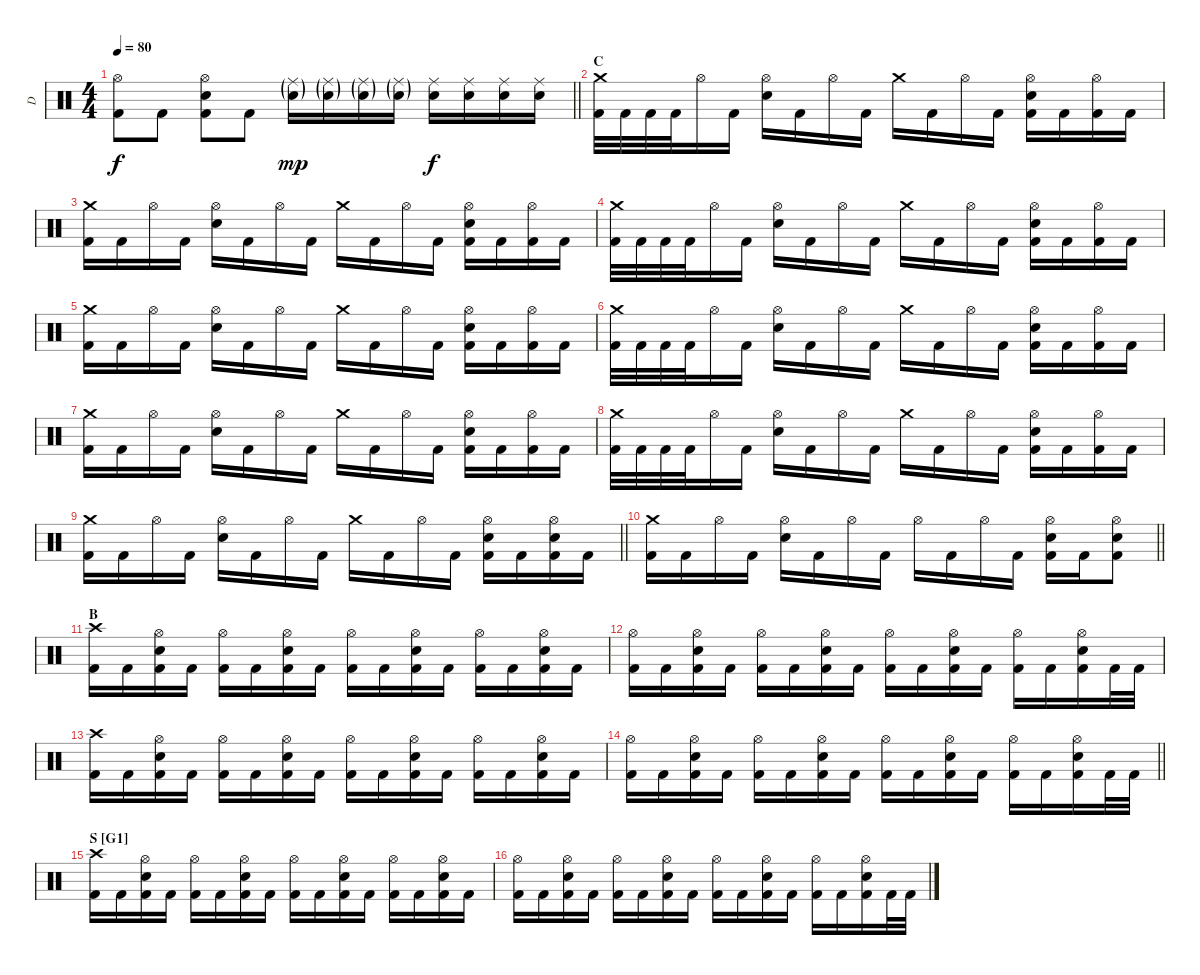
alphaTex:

\track ("D" "D") {instrument percussion}
\staff {score}
\articulation defaults
\ts (4 4)
\tempo 80
\clef neutral
\barLineRight lightlight
\ks c
("Hi-Hat (open)" "Kick (hit) 2").8{dy f} "Kick (hit) 2".8 ("Hi-Hat (open)" "Electric Snare (hit)" "Kick (hit) 2").8 "Kick (hit) 2".8 ("Ride (middle)"{g} "Electric Snare (hit)"{g}).16{dy mp} ("Ride (middle)"{g} "Electric Snare (hit)"{g}).16 ("Ride (middle)"{g} "Electric Snare (hit)"{g}).16 ("Ride (middle)"{g} "Electric Snare (hit)"{g}).16 ("Ride (middle)" "Electric Snare (hit)").16{dy f} ("Ride (middle)" "Electric Snare (hit)").16 ("Ride (middle)" "Electric Snare (hit)").16 ("Ride (middle)" "Electric Snare (hit)").16 |
\section ("" "C")
("Crash medium (hit)" "Kick (hit) 2").32 "Kick (hit) 2".32 "Kick (hit) 2".32 "Kick (hit) 2".32 "Hi-Hat (open)".16 "Kick (hit) 2".16 ("Hi-Hat (open)" "Electric Snare (hit)").16 "Kick (hit) 2".16 "Hi-Hat (open)".16 "Kick (hit) 2".16 "Crash medium (hit)".16 "Kick (hit) 2".16 "Hi-Hat (open)".16 "Kick (hit) 2".16 ("Hi-Hat (open)" "Electric Snare (hit)" "Kick (hit) 2").16 "Kick (hit) 2".16 ("Hi-Hat (open)" "Kick (hit) 2").16 "Kick (hit) 2".16 |
("Crash medium (hit)" "Kick (hit) 2").16 "Kick (hit) 2".16 "Hi-Hat (open)".16 "Kick (hit) 2".16 ("Hi-Hat (open)" "Electric Snare (hit)").16 "Kick (hit) 2".16 "Hi-Hat (open)".16 "Kick (hit) 2".16 "Crash medium (hit)".16 "Kick (hit) 2".16 "Hi-Hat (open)".16 "Kick (hit) 2".16 ("Hi-Hat (open)" "Electric Snare (hit)" "Kick (hit) 2").16 "Kick (hit) 2".16 ("Hi-Hat (open)" "Kick (hit) 2").16 "Kick (hit) 2".16 |
("Crash medium (hit)" "Kick (hit) 2").32 "Kick (hit) 2".32 "Kick (hit) 2".32 "Kick (hit) 2".32 "Hi-Hat (open)".16 "Kick (hit) 2".16 ("Hi-Hat (open)" "Electric Snare (hit)").16 "Kick (hit) 2".16 "Hi-Hat (open)".16 "Kick (hit) 2".16 "Crash medium (hit)".16 "Kick (hit) 2".16 "Hi-Hat (open)".16 "Kick (hit) 2".16 ("Hi-Hat (open)" "Electric Snare (hit)" "Kick (hit) 2").16 "Kick (hit) 2".16 ("Hi-Hat (open)" "Kick (hit) 2").16 "Kick (hit) 2".16 |
("Crash medium (hit)" "Kick (hit) 2").16 "Kick (hit) 2".16 "Hi-Hat (open)".16 "Kick (hit) 2".16 ("Hi-Hat (open)" "Electric Snare (hit)").16 "Kick (hit) 2".16 "Hi-Hat (open)".16 "Kick (hit) 2".16 "Crash medium (hit)".16 "Kick (hit) 2".16 "Hi-Hat (open)".16 "Kick (hit) 2".16 ("Hi-Hat (open)" "Electric Snare (hit)" "Kick (hit) 2").16 "Kick (hit) 2".16 ("Hi-Hat (open)" "Kick (hit) 2").16 "Kick (hit) 2".16 |
("Crash medium (hit)" "Kick (hit) 2").32 "Kick (hit) 2".32 "Kick (hit) 2".32 "Kick (hit) 2".32 "Hi-Hat (open)".16 "Kick (hit) 2".16 ("Hi-Hat (open)" "Electric Snare (hit)").16 "Kick (hit) 2".16 "Hi-Hat (open)".16 "Kick (hit) 2".16 "Crash medium (hit)".16 "Kick (hit) 2".16 "Hi-Hat (open)".16 "Kick (hit) 2".16 ("Hi-Hat (open)" "Electric Snare (hit)" "Kick (hit) 2").16 "Kick (hit) 2".16 ("Hi-Hat (open)" "Kick (hit) 2").16 "Kick (hit) 2".16 |
("Crash medium (hit)" "Kick (hit) 2").16 "Kick (hit) 2".16 "Hi-Hat (open)".16 "Kick (hit) 2".16 ("Hi-Hat (open)" "Electric Snare (hit)").16 "Kick (hit) 2".16 "Hi-Hat (open)".16 "Kick (hit) 2".16 "Crash medium (hit)".16 "Kick (hit) 2".16 "Hi-Hat (open)".16 "Kick (hit) 2".16 ("Hi-Hat (open)" "Electric Snare (hit)" "Kick (hit) 2").16 "Kick (hit) 2".16 ("Hi-Hat (open)" "Kick (hit) 2").16 "Kick (hit) 2".16 |
("Crash medium (hit)" "Kick (hit) 2").32 "Kick (hit) 2".32 "Kick (hit) 2".32 "Kick (hit) 2".32 "Hi-Hat (open)".16 "Kick (hit) 2".16 ("Hi-Hat (open)" "Electric Snare (hit)").16 "Kick (hit) 2".16 "Hi-Hat (open)".16 "Kick (hit) 2".16 "Crash medium (hit)".16 "Kick (hit) 2".16 "Hi-Hat (open)".16 "Kick (hit) 2".16 ("Hi-Hat (open)" "Electric Snare (hit)" "Kick (hit) 2").16 "Kick (hit) 2".16 ("Hi-Hat (open)" "Kick (hit) 2").16 "Kick (hit) 2".16 |
\barLineRight lightlight
("Crash medium (hit)" "Kick (hit) 2").16 "Kick (hit) 2".16 "Hi-Hat (open)".16 "Kick (hit) 2".16 ("Hi-Hat (open)" "Electric Snare (hit)").16 "Kick (hit) 2".16 "Hi-Hat (open)".16 "Kick (hit) 2".16 "Crash medium (hit)".16 "Kick (hit) 2".16 "Hi-Hat (open)".16 "Kick (hit) 2".16 ("Hi-Hat (open)" "Electric Snare (hit)" "Kick (hit) 2").16 "Kick (hit) 2".16 ("Hi-Hat (open)" "Electric Snare (hit)" "Kick (hit) 2").16 "Kick (hit) 2".16 |
\section ("" "")
\barLineRight lightlight
("Crash medium (hit)" "Kick (hit) 2").16 "Kick (hit) 2".16 "Hi-Hat (open)".16 "Kick (hit) 2".16 ("Hi-Hat (open)" "Electric Snare (hit)").16 "Kick (hit) 2".16 "Hi-Hat (open)".16 "Kick (hit) 2".16 "Hi-Hat (open)".16 "Kick (hit) 2".16 "Hi-Hat (open)".16 "Kick (hit) 2".16 ("Hi-Hat (open)" "Electric Snare (hit)" "Kick (hit) 2").16 "Kick (hit) 2".16 ("Hi-Hat (open)" "Electric Snare (hit)" "Kick (hit) 2").8 |
\section ("" "B")
("Crash high (hit)" "Kick (hit) 2").16 "Kick (hit) 2".16 ("Hi-Hat (open)" "Electric Snare (hit)" "Kick (hit) 2").16 "Kick (hit) 2".16 ("Hi-Hat (open)" "Kick (hit) 2").16 "Kick (hit) 2".16 ("Hi-Hat (open)" "Electric Snare (hit)" "Kick (hit) 2").16 "Kick (hit) 2".16 ("Hi-Hat (open)" "Kick (hit) 2").16 "Kick (hit) 2".16 ("Hi-Hat (open)" "Electric Snare (hit)" "Kick (hit) 2").16 "Kick (hit) 2".16 ("Hi-Hat (open)" "Kick (hit) 2").16 "Kick (hit) 2".16 ("Hi-Hat (open)" "Electric Snare (hit)" "Kick (hit) 2").16 "Kick (hit) 2".16 |
("Hi-Hat (open)" "Kick (hit) 2").16 "Kick (hit) 2".16 ("Hi-Hat (open)" "Electric Snare (hit)" "Kick (hit) 2").16 "Kick (hit) 2".16 ("Hi-Hat (open)" "Kick (hit) 2").16 "Kick (hit) 2".16 ("Hi-Hat (open)" "Electric Snare (hit)" "Kick (hit) 2").16 "Kick (hit) 2".16 ("Hi-Hat (open)" "Kick (hit) 2").16 "Kick (hit) 2".16 ("Hi-Hat (open)" "Electric Snare (hit)" "Kick (hit) 2").16 "Kick (hit) 2".16 ("Hi-Hat (open)" "Kick (hit) 2").16 "Kick (hit) 2".16 ("Hi-Hat (open)" "Electric Snare (hit)" "Kick (hit) 2").16 "Kick (hit) 2".32 "Kick (hit) 2".32 |
("Crash high (hit)" "Kick (hit) 2").16 "Kick (hit) 2".16 ("Hi-Hat (open)" "Electric Snare (hit)" "Kick (hit) 2").16 "Kick (hit) 2".16 ("Hi-Hat (open)" "Kick (hit) 2").16 "Kick (hit) 2".16 ("Hi-Hat (open)" "Electric Snare (hit)" "Kick (hit) 2").16 "Kick (hit) 2".16 ("Hi-Hat (open)" "Kick (hit) 2").16 "Kick (hit) 2".16 ("Hi-Hat (open)" "Electric Snare (hit)" "Kick (hit) 2").16 "Kick (hit) 2".16 ("Hi-Hat (open)" "Kick (hit) 2").16 "Kick (hit) 2".16 ("Hi-Hat (open)" "Electric Snare (hit)" "Kick (hit) 2").16 "Kick (hit) 2".16 |
\barLineRight lightlight
("Hi-Hat (open)" "Kick (hit) 2").16 "Kick (hit) 2".16 ("Hi-Hat (open)" "Electric Snare (hit)" "Kick (hit) 2").16 "Kick (hit) 2".16 ("Hi-Hat (open)" "Kick (hit) 2").16 "Kick (hit) 2".16 ("Hi-Hat (open)" "Electric Snare (hit)" "Kick (hit) 2").16 "Kick (hit) 2".16 ("Hi-Hat (open)" "Kick (hit) 2").16 "Kick (hit) 2".16 ("Hi-Hat (open)" "Electric Snare (hit)" "Kick (hit) 2").16 "Kick (hit) 2".16 ("Hi-Hat (open)" "Kick (hit) 2").16 "Kick (hit) 2".16 ("Hi-Hat (open)" "Electric Snare (hit)" "Kick (hit) 2").16 "Kick (hit) 2".32 "Kick (hit) 2".32 |
\section ("" "S [G1]")
("Crash high (hit)" "Kick (hit) 2").16 "Kick (hit) 2".16 ("Hi-Hat (open)" "Electric Snare (hit)" "Kick (hit) 2").16 "Kick (hit) 2".16 ("Hi-Hat (open)" "Kick (hit) 2").16 "Kick (hit) 2".16 ("Hi-Hat (open)" "Electric Snare (hit)" "Kick (hit) 2").16 "Kick (hit) 2".16 ("Hi-Hat (open)" "Kick (hit) 2").16 "Kick (hit) 2".16 ("Hi-Hat (open)" "Electric Snare (hit)" "Kick (hit) 2").16 "Kick (hit) 2".16 ("Hi-Hat (open)" "Kick (hit) 2").16 "Kick (hit) 2".16 ("Hi-Hat (open)" "Electric Snare (hit)" "Kick (hit) 2").16 "Kick (hit) 2".16 |
("Hi-Hat (open)" "Kick (hit) 2").16 "Kick (hit) 2".16 ("Hi-Hat (open)" "Electric Snare (hit)" "Kick (hit) 2").16 "Kick (hit) 2".16 ("Hi-Hat (open)" "Kick (hit) 2").16 "Kick (hit) 2".16 ("Hi-Hat (open)" "Electric Snare (hit)" "Kick (hit) 2").16 "Kick (hit) 2".16 ("Hi-Hat (open)" "Kick (hit) 2").16 "Kick (hit) 2".16 ("Hi-Hat (open)" "Electric Snare (hit)" "Kick (hit) 2").16 "Kick (hit) 2".16 ("Hi-Hat (open)" "Kick (hit) 2").16 "Kick (hit) 2".16 ("Hi-Hat (open)" "Electric Snare (hit)" "Kick (hit) 2").16 "Kick (hit) 2".32 "Kick (hit) 2".32
